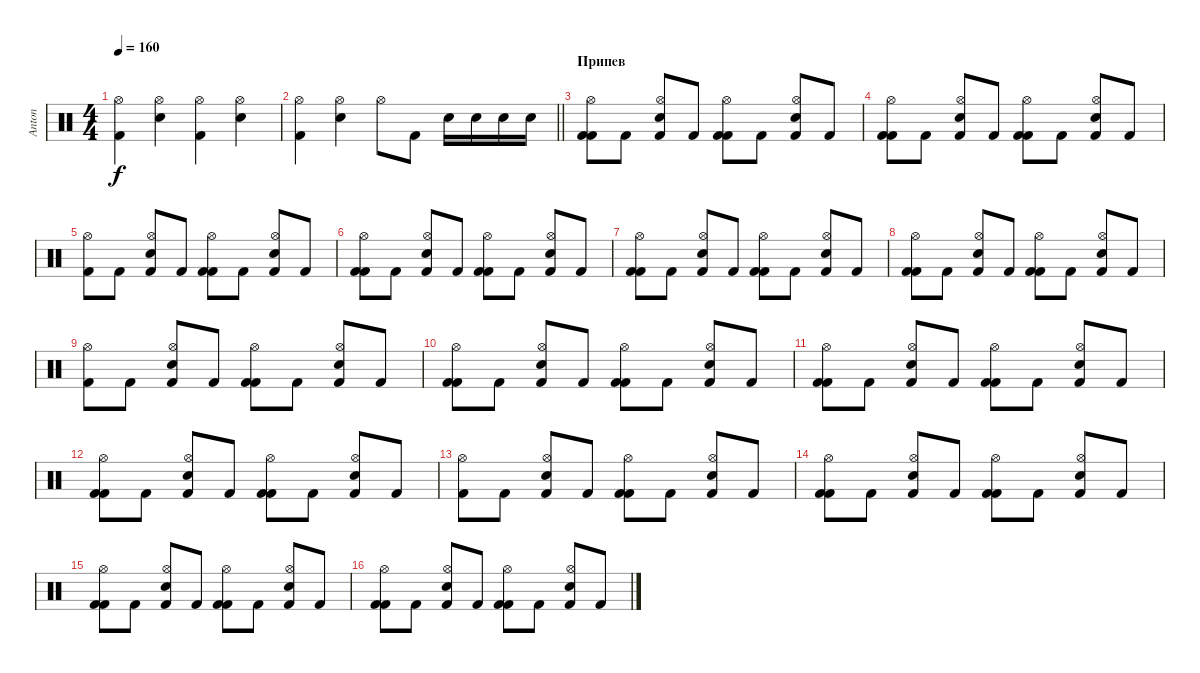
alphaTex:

\track ("Anton" "Anton") {instrument percussion}
\staff {score}
\articulation defaults
\ts (4 4)
\tempo 160
\clef neutral
\ks c
("Kick (hit) 2" "Hi-Hat (open)").4{dy f} ("Electric Snare (hit)" "Hi-Hat (open)").4 ("Kick (hit) 2" "Hi-Hat (open)").4 ("Electric Snare (hit)" "Hi-Hat (open)").4 |
\barLineRight lightlight
("Kick (hit) 2" "Hi-Hat (open)").4 ("Electric Snare (hit)" "Hi-Hat (open)").4 "Hi-Hat (open)".8 "Kick (hit) 2".8 "Electric Snare (hit)".16 "Electric Snare (hit)".16 "Electric Snare (hit)".16 "Electric Snare (hit)".16 |
\section ("" "Припев")
("Kick (hit) 2" "Hi-Hat (open)" "Kick (hit) 2").8 "Kick (hit) 2".8 ("Electric Snare (hit)" "Hi-Hat (open)" "Kick (hit) 2").8 "Kick (hit) 2".8 ("Kick (hit) 2" "Hi-Hat (open)" "Kick (hit) 2").8 "Kick (hit) 2".8 ("Electric Snare (hit)" "Hi-Hat (open)" "Kick (hit) 2").8 "Kick (hit) 2".8 |
("Kick (hit) 2" "Hi-Hat (open)" "Kick (hit) 2").8 "Kick (hit) 2".8 ("Electric Snare (hit)" "Hi-Hat (open)" "Kick (hit) 2").8 "Kick (hit) 2".8 ("Kick (hit) 2" "Hi-Hat (open)" "Kick (hit) 2").8 "Kick (hit) 2".8 ("Electric Snare (hit)" "Hi-Hat (open)" "Kick (hit) 2").8 "Kick (hit) 2".8 |
("Kick (hit) 2" "Hi-Hat (open)").8 "Kick (hit) 2".8 ("Electric Snare (hit)" "Hi-Hat (open)" "Kick (hit) 2").8 "Kick (hit) 2".8 ("Kick (hit) 2" "Hi-Hat (open)" "Kick (hit) 2").8 "Kick (hit) 2".8 ("Electric Snare (hit)" "Hi-Hat (open)" "Kick (hit) 2").8 "Kick (hit) 2".8 |
("Kick (hit) 2" "Hi-Hat (open)" "Kick (hit) 2").8 "Kick (hit) 2".8 ("Electric Snare (hit)" "Hi-Hat (open)" "Kick (hit) 2").8 "Kick (hit) 2".8 ("Kick (hit) 2" "Hi-Hat (open)" "Kick (hit) 2").8 "Kick (hit) 2".8 ("Electric Snare (hit)" "Hi-Hat (open)" "Kick (hit) 2").8 "Kick (hit) 2".8 |
("Kick (hit) 2" "Hi-Hat (open)" "Kick (hit) 2").8 "Kick (hit) 2".8 ("Electric Snare (hit)" "Hi-Hat (open)" "Kick (hit) 2").8 "Kick (hit) 2".8 ("Kick (hit) 2" "Hi-Hat (open)" "Kick (hit) 2").8 "Kick (hit) 2".8 ("Electric Snare (hit)" "Hi-Hat (open)" "Kick (hit) 2").8 "Kick (hit) 2".8 |
("Kick (hit) 2" "Hi-Hat (open)" "Kick (hit) 2").8 "Kick (hit) 2".8 ("Electric Snare (hit)" "Hi-Hat (open)" "Kick (hit) 2").8 "Kick (hit) 2".8 ("Kick (hit) 2" "Hi-Hat (open)" "Kick (hit) 2").8 "Kick (hit) 2".8 ("Electric Snare (hit)" "Hi-Hat (open)" "Kick (hit) 2").8 "Kick (hit) 2".8 |
("Kick (hit) 2" "Hi-Hat (open)").8 "Kick (hit) 2".8 ("Electric Snare (hit)" "Hi-Hat (open)" "Kick (hit) 2").8 "Kick (hit) 2".8 ("Kick (hit) 2" "Hi-Hat (open)" "Kick (hit) 2").8 "Kick (hit) 2".8 ("Electric Snare (hit)" "Hi-Hat (open)" "Kick (hit) 2").8 "Kick (hit) 2".8 |
("Kick (hit) 2" "Hi-Hat (open)" "Kick (hit) 2").8 "Kick (hit) 2".8 ("Electric Snare (hit)" "Hi-Hat (open)" "Kick (hit) 2").8 "Kick (hit) 2".8 ("Kick (hit) 2" "Hi-Hat (open)" "Kick (hit) 2").8 "Kick (hit) 2".8 ("Electric Snare (hit)" "Hi-Hat (open)" "Kick (hit) 2").8 "Kick (hit) 2".8 |
("Kick (hit) 2" "Hi-Hat (open)" "Kick (hit) 2").8 "Kick (hit) 2".8 ("Electric Snare (hit)" "Hi-Hat (open)" "Kick (hit) 2").8 "Kick (hit) 2".8 ("Kick (hit) 2" "Hi-Hat (open)" "Kick (hit) 2").8 "Kick (hit) 2".8 ("Electric Snare (hit)" "Hi-Hat (open)" "Kick (hit) 2").8 "Kick (hit) 2".8 |
("Kick (hit) 2" "Hi-Hat (open)" "Kick (hit) 2").8 "Kick (hit) 2".8 ("Electric Snare (hit)" "Hi-Hat (open)" "Kick (hit) 2").8 "Kick (hit) 2".8 ("Kick (hit) 2" "Hi-Hat (open)" "Kick (hit) 2").8 "Kick (hit) 2".8 ("Electric Snare (hit)" "Hi-Hat (open)" "Kick (hit) 2").8 "Kick (hit) 2".8 |
("Kick (hit) 2" "Hi-Hat (open)").8 "Kick (hit) 2".8 ("Electric Snare (hit)" "Hi-Hat (open)" "Kick (hit) 2").8 "Kick (hit) 2".8 ("Kick (hit) 2" "Hi-Hat (open)" "Kick (hit) 2").8 "Kick (hit) 2".8 ("Electric Snare (hit)" "Hi-Hat (open)" "Kick (hit) 2").8 "Kick (hit) 2".8 |
("Kick (hit) 2" "Hi-Hat (open)" "Kick (hit) 2").8 "Kick (hit) 2".8 ("Electric Snare (hit)" "Hi-Hat (open)" "Kick (hit) 2").8 "Kick (hit) 2".8 ("Kick (hit) 2" "Hi-Hat (open)" "Kick (hit) 2").8 "Kick (hit) 2".8 ("Electric Snare (hit)" "Hi-Hat (open)" "Kick (hit) 2").8 "Kick (hit) 2".8 |
("Kick (hit) 2" "Hi-Hat (open)" "Kick (hit) 2").8 "Kick (hit) 2".8 ("Electric Snare (hit)" "Hi-Hat (open)" "Kick (hit) 2").8 "Kick (hit) 2".8 ("Kick (hit) 2" "Hi-Hat (open)" "Kick (hit) 2").8 "Kick (hit) 2".8 ("Electric Snare (hit)" "Hi-Hat (open)" "Kick (hit) 2").8 "Kick (hit) 2".8 |
("Kick (hit) 2" "Hi-Hat (open)" "Kick (hit) 2").8 "Kick (hit) 2".8 ("Electric Snare (hit)" "Hi-Hat (open)" "Kick (hit) 2").8 "Kick (hit) 2".8 ("Kick (hit) 2" "Hi-Hat (open)" "Kick (hit) 2").8 "Kick (hit) 2".8 ("Electric Snare (hit)" "Hi-Hat (open)" "Kick (hit) 2").8 "Kick (hit) 2".8
